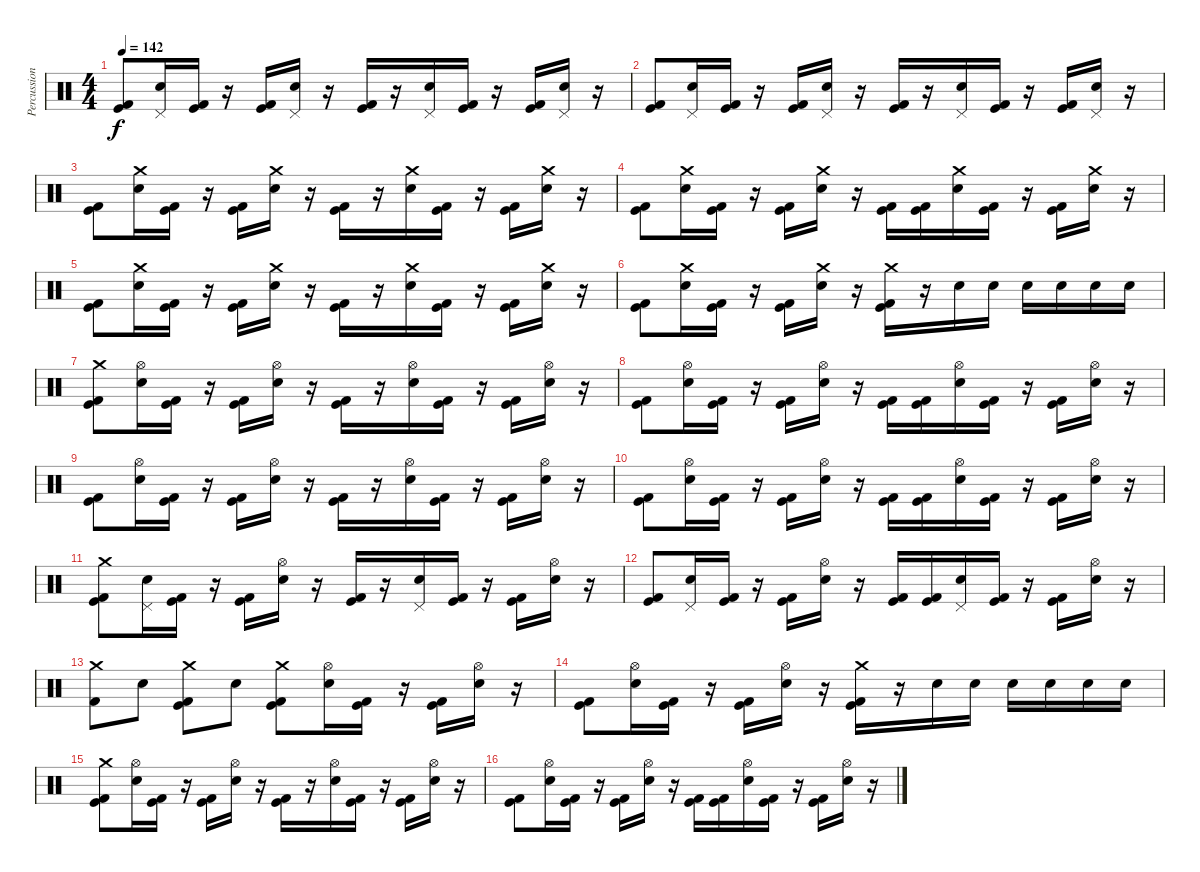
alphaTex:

\track ("Percussions" "Percussion") {instrument percussion}
\staff {score}
\articulation defaults
\ts (4 4)
\tempo 142
\clef neutral
\ks c
("Kick (hit)" "Kick (hit) 2").8{dy f} ("Pedal Hi-Hat (hit)" "Electric Snare (hit)").16 ("Kick (hit)" "Kick (hit) 2").16 r.16 ("Kick (hit)" "Kick (hit) 2").16 ("Pedal Hi-Hat (hit)" "Electric Snare (hit)").16 r.16 ("Kick (hit)" "Kick (hit) 2").16 r.16 ("Pedal Hi-Hat (hit)" "Electric Snare (hit)").16 ("Kick (hit)" "Kick (hit) 2").16 r.16 ("Kick (hit)" "Kick (hit) 2").16 ("Pedal Hi-Hat (hit)" "Electric Snare (hit)").16 r.16 |
("Kick (hit)" "Kick (hit) 2").8 ("Pedal Hi-Hat (hit)" "Electric Snare (hit)").16 ("Kick (hit)" "Kick (hit) 2").16 r.16 ("Kick (hit)" "Kick (hit) 2").16 ("Pedal Hi-Hat (hit)" "Electric Snare (hit)").16 r.16 ("Kick (hit)" "Kick (hit) 2").16 r.16 ("Pedal Hi-Hat (hit)" "Electric Snare (hit)").16 ("Kick (hit)" "Kick (hit) 2").16 r.16 ("Kick (hit)" "Kick (hit) 2").16 ("Pedal Hi-Hat (hit)" "Electric Snare (hit)").16 r.16 |
("Kick (hit)" "Kick (hit) 2").8 ("Crash medium (hit)" "Electric Snare (hit)").16 ("Kick (hit)" "Kick (hit) 2").16 r.16 ("Kick (hit)" "Kick (hit) 2").16 ("Crash medium (hit)" "Electric Snare (hit)").16 r.16 ("Kick (hit)" "Kick (hit) 2").16 r.16 ("Crash medium (hit)" "Electric Snare (hit)").16 ("Kick (hit)" "Kick (hit) 2").16 r.16 ("Kick (hit)" "Kick (hit) 2").16 ("Crash medium (hit)" "Electric Snare (hit)").16 r.16 |
("Kick (hit)" "Kick (hit) 2").8 ("Crash medium (hit)" "Electric Snare (hit)").16 ("Kick (hit)" "Kick (hit) 2").16 r.16 ("Kick (hit)" "Kick (hit) 2").16 ("Crash medium (hit)" "Electric Snare (hit)").16 r.16 ("Kick (hit)" "Kick (hit) 2").16 ("Kick (hit)" "Kick (hit) 2").16 ("Crash medium (hit)" "Electric Snare (hit)").16 ("Kick (hit)" "Kick (hit) 2").16 r.16 ("Kick (hit)" "Kick (hit) 2").16 ("Crash medium (hit)" "Electric Snare (hit)").16 r.16 |
("Kick (hit)" "Kick (hit) 2").8 ("Crash medium (hit)" "Electric Snare (hit)").16 ("Kick (hit)" "Kick (hit) 2").16 r.16 ("Kick (hit)" "Kick (hit) 2").16 ("Crash medium (hit)" "Electric Snare (hit)").16 r.16 ("Kick (hit)" "Kick (hit) 2").16 r.16 ("Crash medium (hit)" "Electric Snare (hit)").16 ("Kick (hit)" "Kick (hit) 2").16 r.16 ("Kick (hit)" "Kick (hit) 2").16 ("Crash medium (hit)" "Electric Snare (hit)").16 r.16 |
("Kick (hit)" "Kick (hit) 2").8 ("Crash medium (hit)" "Electric Snare (hit)").16 ("Kick (hit)" "Kick (hit) 2").16 r.16 ("Kick (hit)" "Kick (hit) 2").16 ("Crash medium (hit)" "Electric Snare (hit)").16 r.16 ("Crash medium (hit)" "Kick (hit)" "Kick (hit) 2").16 r.16 "Electric Snare (hit)".16 "Electric Snare (hit)".16 "Electric Snare (hit)".16 "Electric Snare (hit)".16 "Electric Snare (hit)".16 "Electric Snare (hit)".16 |
("Crash medium (hit)" "Kick (hit)" "Kick (hit) 2").8 ("Hi-Hat (open)" "Electric Snare (hit)").16 ("Kick (hit)" "Kick (hit) 2").16 r.16 ("Kick (hit)" "Kick (hit) 2").16 ("Hi-Hat (open)" "Electric Snare (hit)").16 r.16 ("Kick (hit)" "Kick (hit) 2").16 r.16 ("Hi-Hat (open)" "Electric Snare (hit)").16 ("Kick (hit)" "Kick (hit) 2").16 r.16 ("Kick (hit)" "Kick (hit) 2").16 ("Hi-Hat (open)" "Electric Snare (hit)").16 r.16 |
("Kick (hit)" "Kick (hit) 2").8 ("Hi-Hat (open)" "Electric Snare (hit)").16 ("Kick (hit)" "Kick (hit) 2").16 r.16 ("Kick (hit)" "Kick (hit) 2").16 ("Hi-Hat (open)" "Electric Snare (hit)").16 r.16 ("Kick (hit)" "Kick (hit) 2").16 ("Kick (hit)" "Kick (hit) 2").16 ("Hi-Hat (open)" "Electric Snare (hit)").16 ("Kick (hit)" "Kick (hit) 2").16 r.16 ("Kick (hit)" "Kick (hit) 2").16 ("Hi-Hat (open)" "Electric Snare (hit)").16 r.16 |
("Kick (hit)" "Kick (hit) 2").8 ("Hi-Hat (open)" "Electric Snare (hit)").16 ("Kick (hit)" "Kick (hit) 2").16 r.16 ("Kick (hit)" "Kick (hit) 2").16 ("Hi-Hat (open)" "Electric Snare (hit)").16 r.16 ("Kick (hit)" "Kick (hit) 2").16 r.16 ("Hi-Hat (open)" "Electric Snare (hit)").16 ("Kick (hit)" "Kick (hit) 2").16 r.16 ("Kick (hit)" "Kick (hit) 2").16 ("Hi-Hat (open)" "Electric Snare (hit)").16 r.16 |
("Kick (hit)" "Kick (hit) 2").8 ("Hi-Hat (open)" "Electric Snare (hit)").16 ("Kick (hit)" "Kick (hit) 2").16 r.16 ("Kick (hit)" "Kick (hit) 2").16 ("Hi-Hat (open)" "Electric Snare (hit)").16 r.16 ("Kick (hit)" "Kick (hit) 2").16 ("Kick (hit)" "Kick (hit) 2").16 ("Hi-Hat (open)" "Electric Snare (hit)").16 ("Kick (hit)" "Kick (hit) 2").16 r.16 ("Kick (hit)" "Kick (hit) 2").16 ("Hi-Hat (open)" "Electric Snare (hit)").16 r.16 |
("Crash medium (hit)" "Kick (hit)" "Kick (hit) 2").8 ("Pedal Hi-Hat (hit)" "Electric Snare (hit)").16 ("Kick (hit)" "Kick (hit) 2").16 r.16 ("Kick (hit)" "Kick (hit) 2").16 ("Hi-Hat (open)" "Electric Snare (hit)").16 r.16 ("Kick (hit)" "Kick (hit) 2").16 r.16 ("Pedal Hi-Hat (hit)" "Electric Snare (hit)").16 ("Kick (hit)" "Kick (hit) 2").16 r.16 ("Kick (hit)" "Kick (hit) 2").16 ("Hi-Hat (open)" "Electric Snare (hit)").16 r.16 |
("Kick (hit)" "Kick (hit) 2").8 ("Pedal Hi-Hat (hit)" "Electric Snare (hit)").16 ("Kick (hit)" "Kick (hit) 2").16 r.16 ("Kick (hit)" "Kick (hit) 2").16 ("Hi-Hat (open)" "Electric Snare (hit)").16 r.16 ("Kick (hit)" "Kick (hit) 2").16 ("Kick (hit)" "Kick (hit) 2").16 ("Pedal Hi-Hat (hit)" "Electric Snare (hit)").16 ("Kick (hit)" "Kick (hit) 2").16 r.16 ("Kick (hit)" "Kick (hit) 2").16 ("Hi-Hat (open)" "Electric Snare (hit)").16 r.16 |
("Crash medium (hit)" "Kick (hit) 2").8 "Electric Snare (hit)".8 ("Crash medium (hit)" "Kick (hit)" "Kick (hit) 2").8 "Electric Snare (hit)".8 ("Crash medium (hit)" "Kick (hit)" "Kick (hit) 2").8 ("Hi-Hat (open)" "Electric Snare (hit)").16 ("Kick (hit)" "Kick (hit) 2").16 r.16 ("Kick (hit)" "Kick (hit) 2").16 ("Hi-Hat (open)" "Electric Snare (hit)").16 r.16 |
("Kick (hit)" "Kick (hit) 2").8 ("Hi-Hat (open)" "Electric Snare (hit)").16 ("Kick (hit)" "Kick (hit) 2").16 r.16 ("Kick (hit)" "Kick (hit) 2").16 ("Hi-Hat (open)" "Electric Snare (hit)").16 r.16 ("Crash medium (hit)" "Kick (hit)" "Kick (hit) 2").16 r.16 "Electric Snare (hit)".16 "Electric Snare (hit)".16 "Electric Snare (hit)".16 "Electric Snare (hit)".16 "Electric Snare (hit)".16 "Electric Snare (hit)".16 |
("Crash medium (hit)" "Kick (hit)" "Kick (hit) 2").8 ("Hi-Hat (open)" "Electric Snare (hit)").16 ("Kick (hit)" "Kick (hit) 2").16 r.16 ("Kick (hit)" "Kick (hit) 2").16 ("Hi-Hat (open)" "Electric Snare (hit)").16 r.16 ("Kick (hit)" "Kick (hit) 2").16 r.16 ("Hi-Hat (open)" "Electric Snare (hit)").16 ("Kick (hit)" "Kick (hit) 2").16 r.16 ("Kick (hit)" "Kick (hit) 2").16 ("Hi-Hat (open)" "Electric Snare (hit)").16 r.16 |
("Kick (hit)" "Kick (hit) 2").8 ("Hi-Hat (open)" "Electric Snare (hit)").16 ("Kick (hit)" "Kick (hit) 2").16 r.16 ("Kick (hit)" "Kick (hit) 2").16 ("Hi-Hat (open)" "Electric Snare (hit)").16 r.16 ("Kick (hit)" "Kick (hit) 2").16 ("Kick (hit)" "Kick (hit) 2").16 ("Hi-Hat (open)" "Electric Snare (hit)").16 ("Kick (hit)" "Kick (hit) 2").16 r.16 ("Kick (hit)" "Kick (hit) 2").16 ("Hi-Hat (open)" "Electric Snare (hit)").16 r.16
